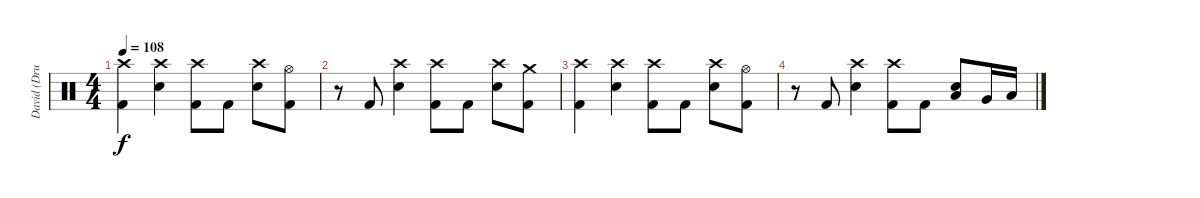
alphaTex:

\track ("David (Drumkit)" "David (Dru") {instrument percussion}
\staff {score}
\articulation defaults
\ts (4 4)
\tempo 108
\clef neutral
\ks c
("Crash high (hit)" "Kick (hit) 2").4{dy f} ("Crash high (hit)" "Electric Snare (hit)").4 ("Crash high (hit)" "Kick (hit) 2").8 "Kick (hit) 2".8 ("Crash high (hit)" "Electric Snare (hit)").8 ("Hi-Hat (open)" "Kick (hit) 2").8 |
r.8 "Kick (hit) 2".8 ("Crash high (hit)" "Electric Snare (hit)").4 ("Crash high (hit)" "Kick (hit) 2").8 "Kick (hit) 2".8 ("Crash high (hit)" "Electric Snare (hit)").8 ("Crash medium (hit)" "Kick (hit) 2").8 |
("Crash high (hit)" "Kick (hit) 2").4 ("Crash high (hit)" "Electric Snare (hit)").4 ("Crash high (hit)" "Kick (hit) 2").8 "Kick (hit) 2".8 ("Crash high (hit)" "Electric Snare (hit)").8 ("Hi-Hat (open)" "Kick (hit) 2").8 |
r.8 "Kick (hit) 2".8 ("Crash high (hit)" "Electric Snare (hit)").4 ("Crash high (hit)" "Kick (hit) 2").8 "Kick (hit) 2".8 ("Low Tom (hit)" "Electric Snare (hit)").8 "Very Low Tom (hit)".16 "Low Floor Tom (hit)".16
